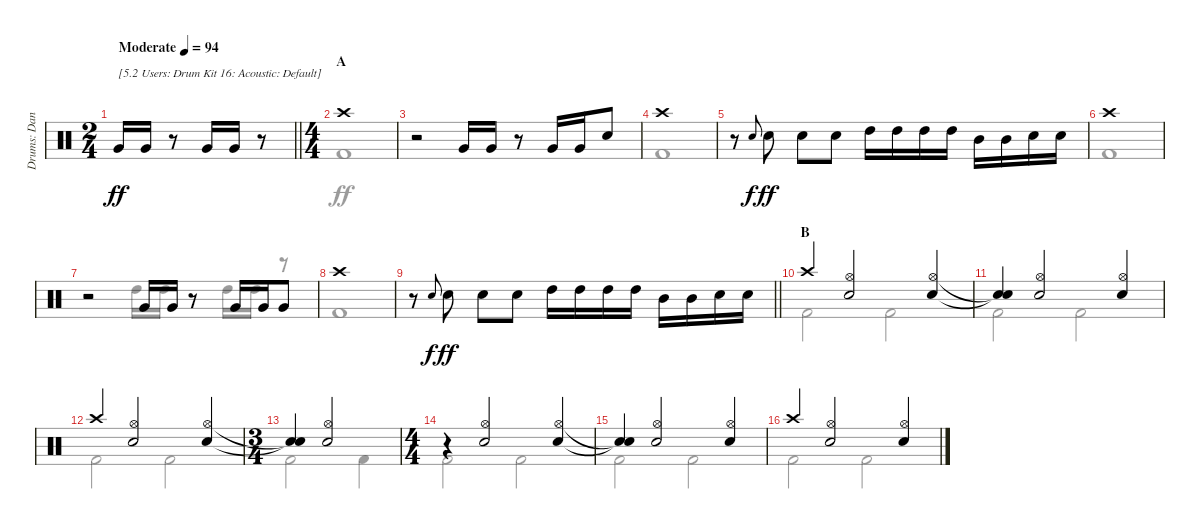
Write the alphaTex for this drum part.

\track ("Drums: Dana" "Drums: Dan") {instrument percussion}
\staff {score}
\articulation defaults
\voice
\ts (2 4)
\tempo (94 "Moderate")
\clef neutral
\barLineRight lightlight
\ks c "Very Low Tom (hit)".16{txt "[5.2 Users: Drum Kit 16: Acoustic: Default]" dy ff} "Very Low Tom (hit)".16
r.8 "Very Low Tom (hit)".16 "Very Low Tom (hit)".16 r.8 |
\ts (4 4)
\section ("" "A")
"Crash high (hit)".1 |
r.2 "Very Low Tom (hit)".16 "Very Low Tom (hit)".16 r.8 "Very Low Tom (hit)".16 "Very Low Tom (hit)".16 "Electric Snare (hit)".8 |
"Crash high (hit)".1 |
r.8 "Electric Snare (hit)".8{gr onbeat dy f} "Snare (hit) 2".8{dy ff} "Snare (hit) 2".8 "Snare (hit) 2".8 "High Tom (hit)".16 "High Tom (hit)".16 "High Tom (hit)".16 "High Tom (hit)".16 "Mid Tom (hit)".16 "Mid Tom (hit)".16 "Snare (hit) 2".16 "Snare (hit) 2".16 |
"Crash high (hit)".1 |
r.2 "Very Low Tom (hit)".16 "Very Low Tom (hit)".16 r.8 "Very Low Tom (hit)".16 "Very Low Tom (hit)".16 "Very Low Tom (hit)".8 |
"Crash high (hit)".1 |
\barLineRight lightlight
r.8 "Electric Snare (hit)".8{gr onbeat dy f} "Snare (hit) 2".8{dy ff} "Snare (hit) 2".8 "Snare (hit) 2".8 "High Tom (hit)".16 "High Tom (hit)".16 "High Tom (hit)".16 "High Tom (hit)".16 "Mid Tom (hit)".16 "Mid Tom (hit)".16 "Snare (hit) 2".16 "Snare (hit) 2".16 |
\section ("" "B")
"Crash high (hit)".4 ("Hi-Hat (open)" "Snare (hit) 2").2 ("Hi-Hat (open)" "Snare (hit) 2").4 |
("Snare (hit)"{t} "Snare (hit)"{t}).4 ("Hi-Hat (open)" "Snare (hit) 2").2 ("Hi-Hat (open)" "Snare (hit) 2").4 |
"Crash high (hit)".4 ("Hi-Hat (open)" "Snare (hit) 2").2 ("Hi-Hat (open)" "Snare (hit) 2").4 |
\ts (3 4)
("Snare (hit)"{t} "Snare (hit)"{t}).4 ("Hi-Hat (open)" "Snare (hit) 2").2 |
\ts (4 4)
r.4 ("Hi-Hat (open)" "Snare (hit) 2").2 ("Hi-Hat (open)" "Snare (hit) 2").4 |
("Snare (hit)"{t} "Snare (hit)"{t}).4 ("Hi-Hat (open)" "Snare (hit) 2").2 ("Hi-Hat (open)" "Snare (hit) 2").4 |
"Crash high (hit)".4 ("Hi-Hat (open)" "Snare (hit) 2").2 ("Hi-Hat (open)" "Snare (hit) 2").4
\voice
\clef neutral
\ottava regular
\simile none
\barLineRight lightlight
\ks c
|
"Kick (hit) 2".1 |
|
"Kick (hit) 2".1 |
|
"Kick (hit) 2".1 |
r.2 "High Tom (hit)".16 "High Tom (hit)".16 r.8 "High Tom (hit)".16 "High Tom (hit)".16 r.8 |
"Kick (hit) 2".1 |
\barLineRight lightlight
|
"Kick (hit) 2".2 "Kick (hit) 2".2 |
"Kick (hit) 2".2 "Kick (hit) 2".2 |
"Kick (hit) 2".2 "Kick (hit) 2".2 |
"Kick (hit) 2".2 "Kick (hit) 2".4 |
"Kick (hit) 2".2 "Kick (hit) 2".2 |
"Kick (hit) 2".2 "Kick (hit) 2".2 |
"Kick (hit) 2".2 "Kick (hit) 2".2
